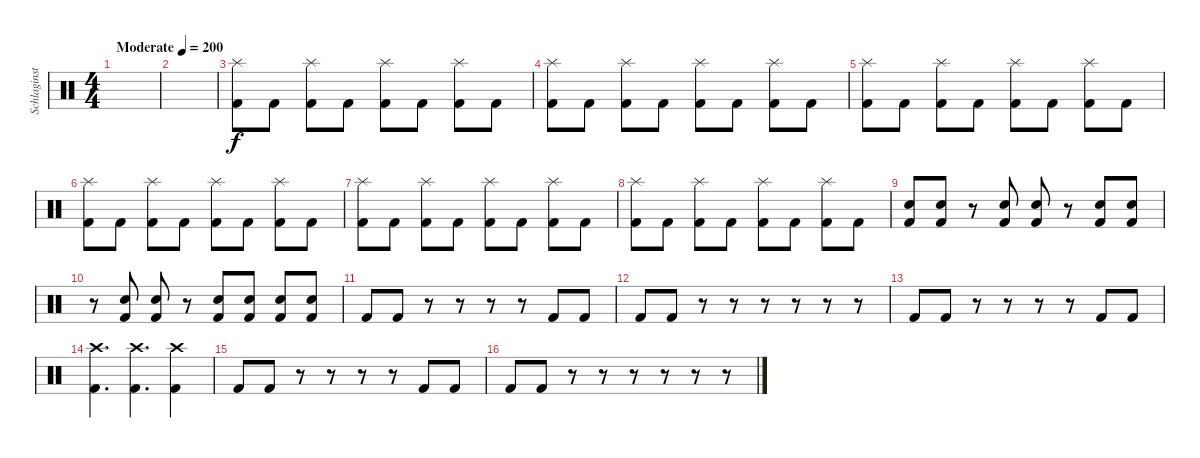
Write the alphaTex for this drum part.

\track ("Schlaginstrumente - Auswahl" "Schlaginst") {instrument percussion}
\staff {score}
\articulation defaults
\ts (4 4)
\tempo (200 "Moderate")
\clef neutral
\ks c
|
|
("Splash (hit)" "Kick (hit) 2").8 "Kick (hit) 2".8 ("Splash (hit)" "Kick (hit) 2").8 "Kick (hit) 2".8 ("Splash (hit)" "Kick (hit) 2").8 "Kick (hit) 2".8 ("Splash (hit)" "Kick (hit) 2").8 "Kick (hit) 2".8 |
("Splash (hit)" "Kick (hit) 2").8 "Kick (hit) 2".8 ("Splash (hit)" "Kick (hit) 2").8 "Kick (hit) 2".8 ("Splash (hit)" "Kick (hit) 2").8 "Kick (hit) 2".8 ("Splash (hit)" "Kick (hit) 2").8 "Kick (hit) 2".8 |
("Splash (hit)" "Kick (hit) 2").8 "Kick (hit) 2".8 ("Splash (hit)" "Kick (hit) 2").8 "Kick (hit) 2".8 ("Splash (hit)" "Kick (hit) 2").8 "Kick (hit) 2".8 ("Splash (hit)" "Kick (hit) 2").8 "Kick (hit) 2".8 |
("Splash (hit)" "Kick (hit) 2").8 "Kick (hit) 2".8 ("Splash (hit)" "Kick (hit) 2").8 "Kick (hit) 2".8 ("Splash (hit)" "Kick (hit) 2").8 "Kick (hit) 2".8 ("Splash (hit)" "Kick (hit) 2").8 "Kick (hit) 2".8 |
("Splash (hit)" "Kick (hit) 2").8 "Kick (hit) 2".8 ("Splash (hit)" "Kick (hit) 2").8 "Kick (hit) 2".8 ("Splash (hit)" "Kick (hit) 2").8 "Kick (hit) 2".8 ("Splash (hit)" "Kick (hit) 2").8 "Kick (hit) 2".8 |
("Splash (hit)" "Kick (hit) 2").8 "Kick (hit) 2".8 ("Splash (hit)" "Kick (hit) 2").8 "Kick (hit) 2".8 ("Splash (hit)" "Kick (hit) 2").8 "Kick (hit) 2".8 ("Splash (hit)" "Kick (hit) 2").8 "Kick (hit) 2".8 |
("Electric Snare (hit)" "Kick (hit) 2").8 ("Electric Snare (hit)" "Kick (hit) 2").8 r.8 ("Electric Snare (hit)" "Kick (hit) 2").8 ("Electric Snare (hit)" "Kick (hit) 2").8 r.8 ("Electric Snare (hit)" "Kick (hit) 2").8 ("Electric Snare (hit)" "Kick (hit) 2").8 |
r.8 ("Electric Snare (hit)" "Kick (hit) 2").8 ("Electric Snare (hit)" "Kick (hit) 2").8 r.8 ("Electric Snare (hit)" "Kick (hit) 2").8 ("Electric Snare (hit)" "Kick (hit) 2").8 ("Electric Snare (hit)" "Kick (hit) 2").8 ("Electric Snare (hit)" "Kick (hit) 2").8 |
"Kick (hit) 2".8 "Kick (hit) 2".8 r.8 r.8 r.8 r.8 "Kick (hit) 2".8 "Kick (hit) 2".8 |
"Kick (hit) 2".8 "Kick (hit) 2".8 r.8 r.8 r.8 r.8 r.8 r.8 |
"Kick (hit) 2".8 "Kick (hit) 2".8 r.8 r.8 r.8 r.8 "Kick (hit) 2".8 "Kick (hit) 2".8 |
("Crash high (hit)" "Kick (hit) 2").4{d} ("Crash high (hit)" "Kick (hit) 2").4{d} ("Crash high (hit)" "Kick (hit) 2").4 |
"Kick (hit) 2".8 "Kick (hit) 2".8 r.8 r.8 r.8 r.8 "Kick (hit) 2".8 "Kick (hit) 2".8 |
"Kick (hit) 2".8 "Kick (hit) 2".8 r.8 r.8 r.8 r.8 r.8 r.8
